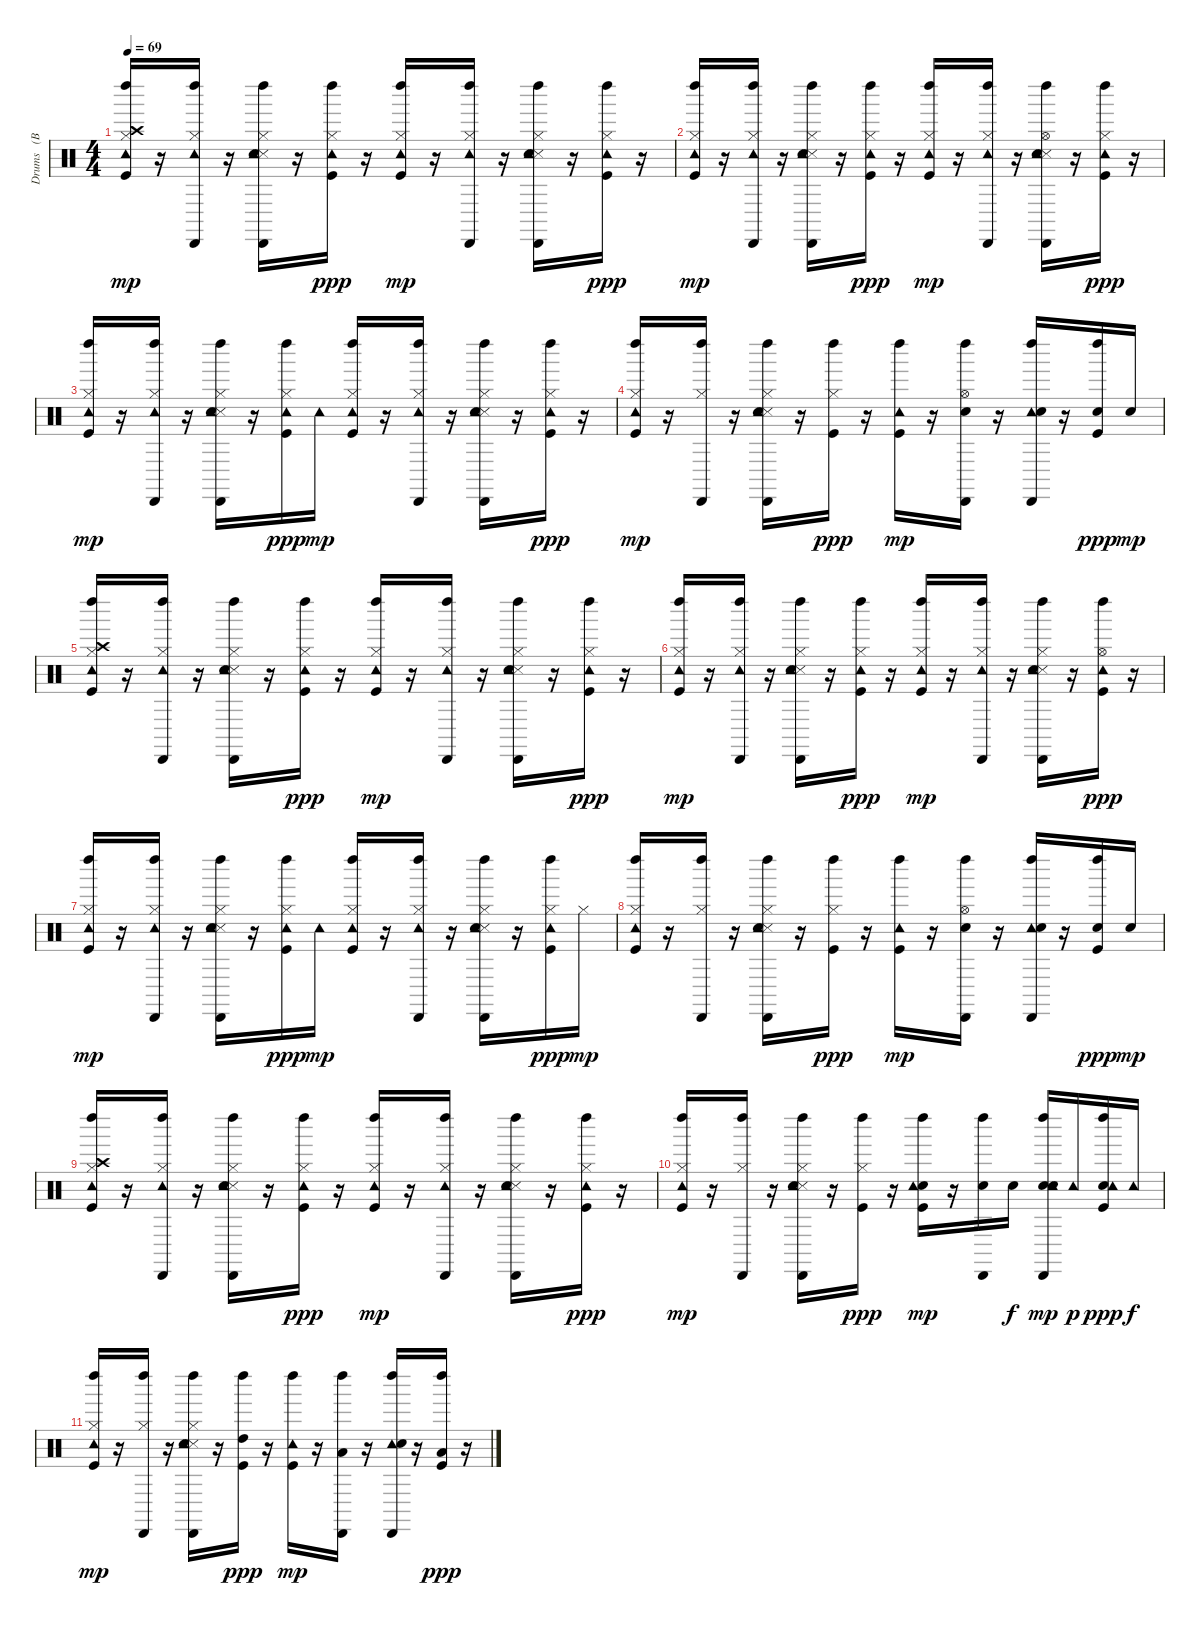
\track ("Drums   (BB)" "Drums   (B") {instrument percussion}
\staff {score}
\articulation defaults
\ts (4 4)
\tempo 69
\clef neutral
\ks c
("Kick (hit)" "Hi-Hat (closed)" "Crash high (hit)" "Tambourine (hit)" "Left Maraca (hit)").16{dy mp} r.16 ("Hi-Hat (closed)" "Tambourine (hit)" "Left Maraca (hit)" "Cabasa (hit)").16 r.16 ("Hi-Hat (closed)" "Snare (side stick) 3" "Tambourine (hit)" "Hand Clap (hit)" "Left Maraca (hit)" "Cabasa (hit)").16 r.16 ("Kick (hit)" "Hi-Hat (closed)" "Tambourine (hit)" "Left Maraca (hit)").16{dy ppp} r.16 ("Kick (hit)" "Hi-Hat (closed)" "Tambourine (hit)" "Left Maraca (hit)").16{dy mp} r.16 ("Hi-Hat (closed)" "Tambourine (hit)" "Left Maraca (hit)" "Cabasa (hit)").16 r.16 ("Hi-Hat (closed)" "Snare (side stick) 3" "Tambourine (hit)" "Hand Clap (hit)" "Left Maraca (hit)" "Cabasa (hit)").16 r.16 ("Kick (hit)" "Hi-Hat (closed)" "Tambourine (hit)" "Left Maraca (hit)").16{dy ppp} r.16 |
("Kick (hit)" "Hi-Hat (closed)" "Tambourine (hit)" "Left Maraca (hit)").16{dy mp} r.16 ("Hi-Hat (closed)" "Tambourine (hit)" "Left Maraca (hit)" "Cabasa (hit)").16 r.16 ("Hi-Hat (closed)" "Snare (side stick) 3" "Tambourine (hit)" "Hand Clap (hit)" "Left Maraca (hit)" "Cabasa (hit)").16 r.16 ("Kick (hit)" "Hi-Hat (closed)" "Tambourine (hit)" "Left Maraca (hit)").16{dy ppp} r.16 ("Kick (hit)" "Hi-Hat (closed)" "Tambourine (hit)" "Left Maraca (hit)").16{dy mp} r.16 ("Hi-Hat (closed)" "Tambourine (hit)" "Left Maraca (hit)" "Cabasa (hit)").16 r.16 ("Hi-Hat (open)" "Snare (side stick) 3" "Tambourine (hit)" "Hand Clap (hit)" "Left Maraca (hit)" "Cabasa (hit)").16 r.16 ("Kick (hit)" "Hi-Hat (closed)" "Tambourine (hit)" "Left Maraca (hit)").16{dy ppp} r.16 |
("Kick (hit)" "Hi-Hat (closed)" "Tambourine (hit)" "Left Maraca (hit)").16{dy mp} r.16 ("Hi-Hat (closed)" "Tambourine (hit)" "Left Maraca (hit)" "Cabasa (hit)").16 r.16 ("Hi-Hat (closed)" "Snare (side stick) 3" "Tambourine (hit)" "Hand Clap (hit)" "Left Maraca (hit)" "Cabasa (hit)").16 r.16 ("Kick (hit)" "Hi-Hat (closed)" "Tambourine (hit)" "Left Maraca (hit)").16{dy ppp} "Tambourine (hit)".16{dy mp} ("Kick (hit)" "Hi-Hat (closed)" "Tambourine (hit)" "Left Maraca (hit)").16 r.16 ("Hi-Hat (closed)" "Tambourine (hit)" "Left Maraca (hit)" "Cabasa (hit)").16 r.16 ("Hi-Hat (closed)" "Snare (side stick) 3" "Tambourine (hit)" "Hand Clap (hit)" "Left Maraca (hit)" "Cabasa (hit)").16 r.16 ("Kick (hit)" "Hi-Hat (closed)" "Tambourine (hit)" "Left Maraca (hit)").16{dy ppp} r.16 |
("Kick (hit)" "Hi-Hat (closed)" "Tambourine (hit)" "Left Maraca (hit)").16{dy mp} r.16 ("Hi-Hat (closed)" "Left Maraca (hit)" "Cabasa (hit)").16 r.16 ("Hi-Hat (closed)" "Snare (side stick) 3" "Tambourine (hit)" "Hand Clap (hit)" "Left Maraca (hit)" "Cabasa (hit)").16 r.16 ("Kick (hit)" "Hi-Hat (closed)" "Left Maraca (hit)").16{dy ppp} r.16 ("Kick (hit)" "Tambourine (hit)" "Left Maraca (hit)").16{dy mp} r.16 ("Snare (hit) 2" "Hi-Hat (open)" "Left Maraca (hit)" "Cabasa (hit)").16 r.16 ("Tambourine (hit)" "Hand Clap (hit)" "Left Maraca (hit)" "Cabasa (hit)").16 r.16 ("Kick (hit)" "Snare (hit) 2" "Left Maraca (hit)").16{dy ppp} "Snare (hit) 2".16{dy mp} |
("Kick (hit)" "Hi-Hat (closed)" "Crash high (hit)" "Tambourine (hit)" "Left Maraca (hit)").16 r.16 ("Hi-Hat (closed)" "Tambourine (hit)" "Left Maraca (hit)" "Cabasa (hit)").16 r.16 ("Hi-Hat (closed)" "Snare (side stick) 3" "Tambourine (hit)" "Hand Clap (hit)" "Left Maraca (hit)" "Cabasa (hit)").16 r.16 ("Kick (hit)" "Hi-Hat (closed)" "Tambourine (hit)" "Left Maraca (hit)").16{dy ppp} r.16 ("Kick (hit)" "Hi-Hat (closed)" "Tambourine (hit)" "Left Maraca (hit)").16{dy mp} r.16 ("Hi-Hat (closed)" "Tambourine (hit)" "Left Maraca (hit)" "Cabasa (hit)").16 r.16 ("Hi-Hat (closed)" "Snare (side stick) 3" "Tambourine (hit)" "Hand Clap (hit)" "Left Maraca (hit)" "Cabasa (hit)").16 r.16 ("Kick (hit)" "Hi-Hat (closed)" "Tambourine (hit)" "Left Maraca (hit)").16{dy ppp} r.16 |
("Kick (hit)" "Hi-Hat (closed)" "Tambourine (hit)" "Left Maraca (hit)").16{dy mp} r.16 ("Hi-Hat (closed)" "Tambourine (hit)" "Left Maraca (hit)" "Cabasa (hit)").16 r.16 ("Hi-Hat (closed)" "Snare (side stick) 3" "Tambourine (hit)" "Hand Clap (hit)" "Left Maraca (hit)" "Cabasa (hit)").16 r.16 ("Kick (hit)" "Hi-Hat (closed)" "Tambourine (hit)" "Left Maraca (hit)").16{dy ppp} r.16 ("Kick (hit)" "Hi-Hat (closed)" "Tambourine (hit)" "Left Maraca (hit)").16{dy mp} r.16 ("Hi-Hat (closed)" "Tambourine (hit)" "Left Maraca (hit)" "Cabasa (hit)").16 r.16 ("Hi-Hat (closed)" "Snare (side stick) 3" "Tambourine (hit)" "Hand Clap (hit)" "Left Maraca (hit)" "Cabasa (hit)").16 r.16 ("Kick (hit)" "Hi-Hat (open)" "Tambourine (hit)" "Left Maraca (hit)").16{dy ppp} r.16 |
("Kick (hit)" "Hi-Hat (closed)" "Tambourine (hit)" "Left Maraca (hit)").16{dy mp} r.16 ("Hi-Hat (closed)" "Tambourine (hit)" "Left Maraca (hit)" "Cabasa (hit)").16 r.16 ("Hi-Hat (closed)" "Snare (side stick) 3" "Tambourine (hit)" "Hand Clap (hit)" "Left Maraca (hit)" "Cabasa (hit)").16 r.16 ("Kick (hit)" "Hi-Hat (closed)" "Tambourine (hit)" "Left Maraca (hit)").16{dy ppp} "Tambourine (hit)".16{dy mp} ("Kick (hit)" "Hi-Hat (closed)" "Tambourine (hit)" "Left Maraca (hit)").16 r.16 ("Hi-Hat (closed)" "Tambourine (hit)" "Left Maraca (hit)" "Cabasa (hit)").16 r.16 ("Hi-Hat (closed)" "Snare (side stick) 3" "Tambourine (hit)" "Hand Clap (hit)" "Left Maraca (hit)" "Cabasa (hit)").16 r.16 ("Kick (hit)" "Hi-Hat (closed)" "Tambourine (hit)" "Left Maraca (hit)").16{dy ppp} "Hi-Hat (closed)".16{dy mp} |
("Kick (hit)" "Hi-Hat (closed)" "Tambourine (hit)" "Left Maraca (hit)").16 r.16 ("Hi-Hat (closed)" "Left Maraca (hit)" "Cabasa (hit)").16 r.16 ("Hi-Hat (closed)" "Snare (side stick) 3" "Tambourine (hit)" "Hand Clap (hit)" "Left Maraca (hit)" "Cabasa (hit)").16 r.16 ("Kick (hit)" "Hi-Hat (closed)" "Left Maraca (hit)").16{dy ppp} r.16 ("Kick (hit)" "Tambourine (hit)" "Left Maraca (hit)").16{dy mp} r.16 ("Snare (hit) 2" "Hi-Hat (open)" "Left Maraca (hit)" "Cabasa (hit)").16 r.16 ("Tambourine (hit)" "Hand Clap (hit)" "Left Maraca (hit)" "Cabasa (hit)").16 r.16 ("Kick (hit)" "Snare (hit) 2" "Left Maraca (hit)").16{dy ppp} "Snare (hit) 2".16{dy mp} |
("Kick (hit)" "Hi-Hat (closed)" "Crash high (hit)" "Tambourine (hit)" "Left Maraca (hit)").16 r.16 ("Hi-Hat (closed)" "Tambourine (hit)" "Left Maraca (hit)" "Cabasa (hit)").16 r.16 ("Hi-Hat (closed)" "Snare (side stick) 3" "Tambourine (hit)" "Hand Clap (hit)" "Left Maraca (hit)" "Cabasa (hit)").16 r.16 ("Kick (hit)" "Hi-Hat (closed)" "Tambourine (hit)" "Left Maraca (hit)").16{dy ppp} r.16 ("Kick (hit)" "Hi-Hat (closed)" "Tambourine (hit)" "Left Maraca (hit)").16{dy mp} r.16 ("Hi-Hat (closed)" "Tambourine (hit)" "Left Maraca (hit)" "Cabasa (hit)").16 r.16 ("Hi-Hat (closed)" "Snare (side stick) 3" "Tambourine (hit)" "Hand Clap (hit)" "Left Maraca (hit)" "Cabasa (hit)").16 r.16 ("Kick (hit)" "Hi-Hat (closed)" "Tambourine (hit)" "Left Maraca (hit)").16{dy ppp} r.16 |
("Kick (hit)" "Hi-Hat (closed)" "Tambourine (hit)" "Left Maraca (hit)").16{dy mp} r.16 ("Hi-Hat (closed)" "Left Maraca (hit)" "Cabasa (hit)").16 r.16 ("Hi-Hat (closed)" "Snare (side stick) 3" "Tambourine (hit)" "Hand Clap (hit)" "Left Maraca (hit)" "Cabasa (hit)").16 r.16 ("Kick (hit)" "Hi-Hat (closed)" "Left Maraca (hit)").16{dy ppp} r.16 ("Kick (hit)" "Snare (hit) 2" "Tambourine (hit)" "Left Maraca (hit)").16{dy mp} r.16 ("Snare (hit) 2" "Left Maraca (hit)" "Cabasa (hit)").16 "Snare (hit) 2".16{dy f} ("Snare (hit) 2" "Tambourine (hit)" "Hand Clap (hit)" "Left Maraca (hit)" "Cabasa (hit)").16{dy mp} "Tambourine (hit)".16{dy p} ("Kick (hit)" "Snare (hit) 2" "Tambourine (hit)" "Left Maraca (hit)").16{dy ppp} "Tambourine (hit)".16{dy f} |
("Kick (hit)" "Hi-Hat (closed)" "Tambourine (hit)" "Left Maraca (hit)").16{dy mp} r.16 ("Hi-Hat (closed)" "Left Maraca (hit)" "Cabasa (hit)").16 r.16 ("Hi-Hat (closed)" "Snare (side stick) 3" "Tambourine (hit)" "Hand Clap (hit)" "Left Maraca (hit)" "Cabasa (hit)").16 r.16 ("Kick (hit)" "High Tom (hit)" "Left Maraca (hit)").16{dy ppp} r.16 ("Kick (hit)" "Tambourine (hit)" "Left Maraca (hit)").16{dy mp} r.16 ("Low Tom (hit)" "Left Maraca (hit)" "Cabasa (hit)").16 r.16 ("Tambourine (hit)" "Hand Clap (hit)" "Left Maraca (hit)" "Cabasa (hit)").16 r.16 ("Kick (hit)" "Low Floor Tom (hit)" "Left Maraca (hit)").16{dy ppp} r.16
